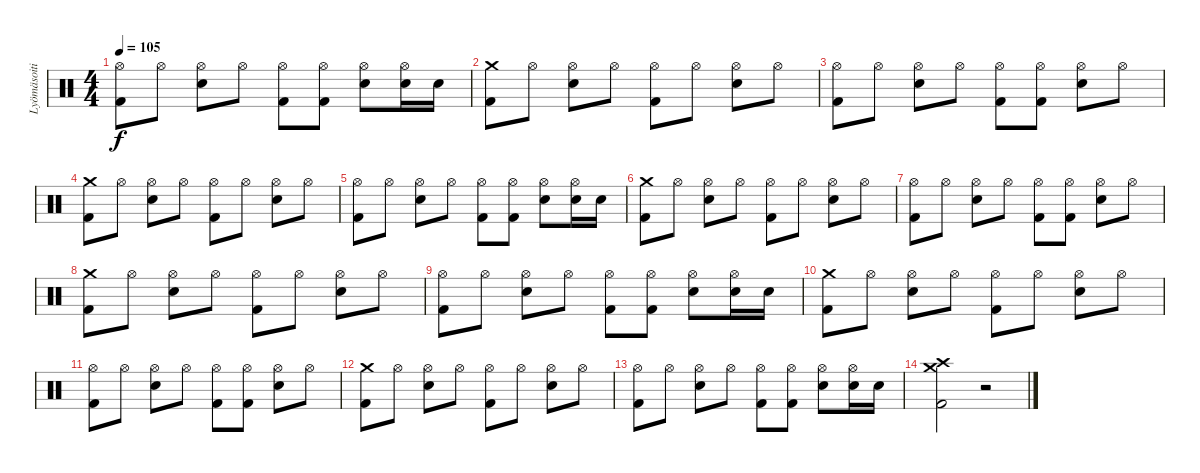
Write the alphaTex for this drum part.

\track ("Lyömäsoitin" "Lyömäsoiti") {instrument percussion}
\staff {score}
\articulation defaults
\ts (4 4)
\tempo 105
\clef neutral
\ks c
("Hi-Hat (open)" "Kick (hit) 2").8{dy f} "Hi-Hat (open)".8 ("Hi-Hat (open)" "Snare (hit) 2").8 "Hi-Hat (open)".8 ("Hi-Hat (open)" "Kick (hit) 2").8 ("Hi-Hat (open)" "Kick (hit) 2").8 ("Hi-Hat (open)" "Snare (hit) 2").8 ("Hi-Hat (open)" "Snare (hit) 2").16 "Snare (hit) 2".16 |
("Crash medium (hit)" "Kick (hit) 2").8 "Hi-Hat (open)".8 ("Hi-Hat (open)" "Snare (hit) 2").8 "Hi-Hat (open)".8 ("Hi-Hat (open)" "Kick (hit) 2").8 "Hi-Hat (open)".8 ("Hi-Hat (open)" "Snare (hit) 2").8 "Hi-Hat (open)".8 |
("Hi-Hat (open)" "Kick (hit) 2").8 "Hi-Hat (open)".8 ("Hi-Hat (open)" "Snare (hit) 2").8 "Hi-Hat (open)".8 ("Hi-Hat (open)" "Kick (hit) 2").8 ("Hi-Hat (open)" "Kick (hit) 2").8 ("Hi-Hat (open)" "Snare (hit) 2").8 "Hi-Hat (open)".8 |
("Crash medium (hit)" "Kick (hit) 2").8 "Hi-Hat (open)".8 ("Hi-Hat (open)" "Snare (hit) 2").8 "Hi-Hat (open)".8 ("Hi-Hat (open)" "Kick (hit) 2").8 "Hi-Hat (open)".8 ("Hi-Hat (open)" "Snare (hit) 2").8 "Hi-Hat (open)".8 |
("Hi-Hat (open)" "Kick (hit) 2").8 "Hi-Hat (open)".8 ("Hi-Hat (open)" "Snare (hit) 2").8 "Hi-Hat (open)".8 ("Hi-Hat (open)" "Kick (hit) 2").8 ("Hi-Hat (open)" "Kick (hit) 2").8 ("Hi-Hat (open)" "Snare (hit) 2").8 ("Hi-Hat (open)" "Snare (hit) 2").16 "Snare (hit) 2".16 |
("Crash medium (hit)" "Kick (hit) 2").8 "Hi-Hat (open)".8 ("Hi-Hat (open)" "Snare (hit) 2").8 "Hi-Hat (open)".8 ("Hi-Hat (open)" "Kick (hit) 2").8 "Hi-Hat (open)".8 ("Hi-Hat (open)" "Snare (hit) 2").8 "Hi-Hat (open)".8 |
("Hi-Hat (open)" "Kick (hit) 2").8 "Hi-Hat (open)".8 ("Hi-Hat (open)" "Snare (hit) 2").8 "Hi-Hat (open)".8 ("Hi-Hat (open)" "Kick (hit) 2").8 ("Hi-Hat (open)" "Kick (hit) 2").8 ("Hi-Hat (open)" "Snare (hit) 2").8 "Hi-Hat (open)".8 |
("Crash medium (hit)" "Kick (hit) 2").8 "Hi-Hat (open)".8 ("Hi-Hat (open)" "Snare (hit) 2").8 "Hi-Hat (open)".8 ("Hi-Hat (open)" "Kick (hit) 2").8 "Hi-Hat (open)".8 ("Hi-Hat (open)" "Snare (hit) 2").8 "Hi-Hat (open)".8 |
("Hi-Hat (open)" "Kick (hit) 2").8 "Hi-Hat (open)".8 ("Hi-Hat (open)" "Snare (hit) 2").8 "Hi-Hat (open)".8 ("Hi-Hat (open)" "Kick (hit) 2").8 ("Hi-Hat (open)" "Kick (hit) 2").8 ("Hi-Hat (open)" "Snare (hit) 2").8 ("Hi-Hat (open)" "Snare (hit) 2").16 "Snare (hit) 2".16 |
("Crash medium (hit)" "Kick (hit) 2").8 "Hi-Hat (open)".8 ("Hi-Hat (open)" "Snare (hit) 2").8 "Hi-Hat (open)".8 ("Hi-Hat (open)" "Kick (hit) 2").8 "Hi-Hat (open)".8 ("Hi-Hat (open)" "Snare (hit) 2").8 "Hi-Hat (open)".8 |
("Hi-Hat (open)" "Kick (hit) 2").8 "Hi-Hat (open)".8 ("Hi-Hat (open)" "Snare (hit) 2").8 "Hi-Hat (open)".8 ("Hi-Hat (open)" "Kick (hit) 2").8 ("Hi-Hat (open)" "Kick (hit) 2").8 ("Hi-Hat (open)" "Snare (hit) 2").8 "Hi-Hat (open)".8 |
("Crash medium (hit)" "Kick (hit) 2").8 "Hi-Hat (open)".8 ("Hi-Hat (open)" "Snare (hit) 2").8 "Hi-Hat (open)".8 ("Hi-Hat (open)" "Kick (hit) 2").8 "Hi-Hat (open)".8 ("Hi-Hat (open)" "Snare (hit) 2").8 "Hi-Hat (open)".8 |
("Hi-Hat (open)" "Kick (hit) 2").8 "Hi-Hat (open)".8 ("Hi-Hat (open)" "Snare (hit) 2").8 "Hi-Hat (open)".8 ("Hi-Hat (open)" "Kick (hit) 2").8 ("Hi-Hat (open)" "Kick (hit) 2").8 ("Hi-Hat (open)" "Snare (hit) 2").8 ("Hi-Hat (open)" "Snare (hit) 2").16 "Snare (hit) 2".16 |
("Crash medium (hit)" "Crash high (hit)" "Kick (hit) 2").2 r.2
